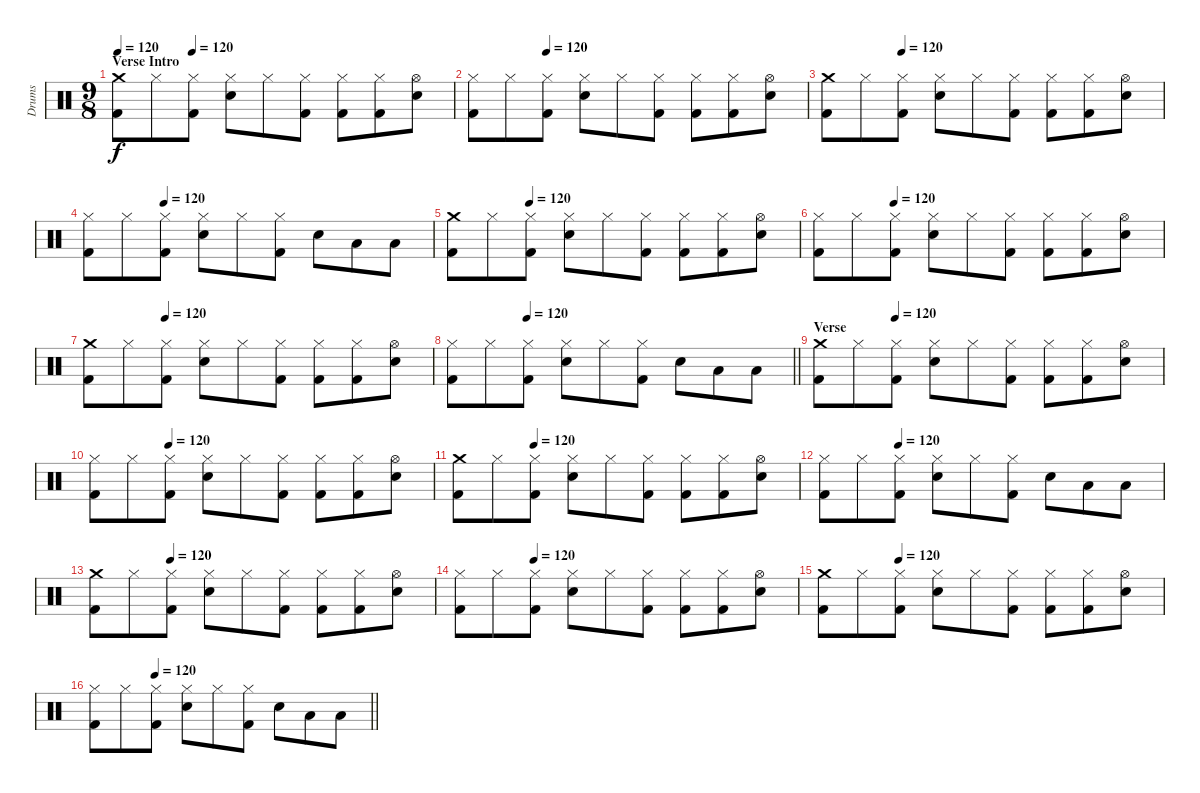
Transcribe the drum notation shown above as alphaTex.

\track ("Drums" "Drums") {instrument percussion}
\staff {score}
\articulation defaults
\ts (9 8)
\section ("" "Verse Intro")
\tempo 120
\tempo (120 0.2222222222222222)
\clef neutral
\ks c
("Kick (hit) 2" "Crash medium (hit)").8{dy f} "Hi-Hat (closed)".8 ("Kick (hit) 2" "Hi-Hat (closed)").8 ("Electric Snare (hit)" "Hi-Hat (closed)").8 "Hi-Hat (closed)".8 ("Kick (hit) 2" "Hi-Hat (closed)").8 ("Kick (hit) 2" "Hi-Hat (closed)").8 ("Kick (hit) 2" "Hi-Hat (closed)").8 ("Electric Snare (hit)" "Hi-Hat (open)").8 |
\tempo (120 0.2222222222222222)
("Kick (hit) 2" "Hi-Hat (closed)").8 "Hi-Hat (closed)".8 ("Kick (hit) 2" "Hi-Hat (closed)").8 ("Electric Snare (hit)" "Hi-Hat (closed)").8 "Hi-Hat (closed)".8 ("Kick (hit) 2" "Hi-Hat (closed)").8 ("Kick (hit) 2" "Hi-Hat (closed)").8 ("Kick (hit) 2" "Hi-Hat (closed)").8 ("Electric Snare (hit)" "Hi-Hat (open)").8 |
\tempo (120 0.2222222222222222)
("Kick (hit) 2" "Crash medium (hit)").8 "Hi-Hat (closed)".8 ("Kick (hit) 2" "Hi-Hat (closed)").8 ("Electric Snare (hit)" "Hi-Hat (closed)").8 "Hi-Hat (closed)".8 ("Kick (hit) 2" "Hi-Hat (closed)").8 ("Kick (hit) 2" "Hi-Hat (closed)").8 ("Kick (hit) 2" "Hi-Hat (closed)").8 ("Electric Snare (hit)" "Hi-Hat (open)").8 |
\tempo (120 0.2222222222222222)
("Kick (hit) 2" "Hi-Hat (closed)").8 "Hi-Hat (closed)".8 ("Kick (hit) 2" "Hi-Hat (closed)").8 ("Electric Snare (hit)" "Hi-Hat (closed)").8 "Hi-Hat (closed)".8 ("Kick (hit) 2" "Hi-Hat (closed)").8 "Electric Snare (hit)".8 "Low Tom (hit)".8 "Low Floor Tom (hit)".8 |
\tempo (120 0.2222222222222222)
("Kick (hit) 2" "Crash medium (hit)").8 "Hi-Hat (closed)".8 ("Kick (hit) 2" "Hi-Hat (closed)").8 ("Electric Snare (hit)" "Hi-Hat (closed)").8 "Hi-Hat (closed)".8 ("Kick (hit) 2" "Hi-Hat (closed)").8 ("Kick (hit) 2" "Hi-Hat (closed)").8 ("Kick (hit) 2" "Hi-Hat (closed)").8 ("Electric Snare (hit)" "Hi-Hat (open)").8 |
\tempo (120 0.2222222222222222)
("Kick (hit) 2" "Hi-Hat (closed)").8 "Hi-Hat (closed)".8 ("Kick (hit) 2" "Hi-Hat (closed)").8 ("Electric Snare (hit)" "Hi-Hat (closed)").8 "Hi-Hat (closed)".8 ("Kick (hit) 2" "Hi-Hat (closed)").8 ("Kick (hit) 2" "Hi-Hat (closed)").8 ("Kick (hit) 2" "Hi-Hat (closed)").8 ("Electric Snare (hit)" "Hi-Hat (open)").8 |
\tempo (120 0.2222222222222222)
("Kick (hit) 2" "Crash medium (hit)").8 "Hi-Hat (closed)".8 ("Kick (hit) 2" "Hi-Hat (closed)").8 ("Electric Snare (hit)" "Hi-Hat (closed)").8 "Hi-Hat (closed)".8 ("Kick (hit) 2" "Hi-Hat (closed)").8 ("Kick (hit) 2" "Hi-Hat (closed)").8 ("Kick (hit) 2" "Hi-Hat (closed)").8 ("Electric Snare (hit)" "Hi-Hat (open)").8 |
\tempo (120 0.2222222222222222)
\barLineRight lightlight
("Kick (hit) 2" "Hi-Hat (closed)").8 "Hi-Hat (closed)".8 ("Kick (hit) 2" "Hi-Hat (closed)").8 ("Electric Snare (hit)" "Hi-Hat (closed)").8 "Hi-Hat (closed)".8 ("Kick (hit) 2" "Hi-Hat (closed)").8 "Electric Snare (hit)".8 "Low Tom (hit)".8 "Low Floor Tom (hit)".8 |
\section ("" "Verse")
\tempo (120 0.2222222222222222)
("Kick (hit) 2" "Crash medium (hit)").8 "Hi-Hat (closed)".8 ("Kick (hit) 2" "Hi-Hat (closed)").8 ("Electric Snare (hit)" "Hi-Hat (closed)").8 "Hi-Hat (closed)".8 ("Kick (hit) 2" "Hi-Hat (closed)").8 ("Kick (hit) 2" "Hi-Hat (closed)").8 ("Kick (hit) 2" "Hi-Hat (closed)").8 ("Electric Snare (hit)" "Hi-Hat (open)").8 |
\tempo (120 0.2222222222222222)
("Kick (hit) 2" "Hi-Hat (closed)").8 "Hi-Hat (closed)".8 ("Kick (hit) 2" "Hi-Hat (closed)").8 ("Electric Snare (hit)" "Hi-Hat (closed)").8 "Hi-Hat (closed)".8 ("Kick (hit) 2" "Hi-Hat (closed)").8 ("Kick (hit) 2" "Hi-Hat (closed)").8 ("Kick (hit) 2" "Hi-Hat (closed)").8 ("Electric Snare (hit)" "Hi-Hat (open)").8 |
\tempo (120 0.2222222222222222)
("Kick (hit) 2" "Crash medium (hit)").8 "Hi-Hat (closed)".8 ("Kick (hit) 2" "Hi-Hat (closed)").8 ("Electric Snare (hit)" "Hi-Hat (closed)").8 "Hi-Hat (closed)".8 ("Kick (hit) 2" "Hi-Hat (closed)").8 ("Kick (hit) 2" "Hi-Hat (closed)").8 ("Kick (hit) 2" "Hi-Hat (closed)").8 ("Electric Snare (hit)" "Hi-Hat (open)").8 |
\tempo (120 0.2222222222222222)
("Kick (hit) 2" "Hi-Hat (closed)").8 "Hi-Hat (closed)".8 ("Kick (hit) 2" "Hi-Hat (closed)").8 ("Electric Snare (hit)" "Hi-Hat (closed)").8 "Hi-Hat (closed)".8 ("Kick (hit) 2" "Hi-Hat (closed)").8 "Electric Snare (hit)".8 "Low Tom (hit)".8 "Low Floor Tom (hit)".8 |
\tempo (120 0.2222222222222222)
("Kick (hit) 2" "Crash medium (hit)").8 "Hi-Hat (closed)".8 ("Kick (hit) 2" "Hi-Hat (closed)").8 ("Electric Snare (hit)" "Hi-Hat (closed)").8 "Hi-Hat (closed)".8 ("Kick (hit) 2" "Hi-Hat (closed)").8 ("Kick (hit) 2" "Hi-Hat (closed)").8 ("Kick (hit) 2" "Hi-Hat (closed)").8 ("Electric Snare (hit)" "Hi-Hat (open)").8 |
\tempo (120 0.2222222222222222)
("Kick (hit) 2" "Hi-Hat (closed)").8 "Hi-Hat (closed)".8 ("Kick (hit) 2" "Hi-Hat (closed)").8 ("Electric Snare (hit)" "Hi-Hat (closed)").8 "Hi-Hat (closed)".8 ("Kick (hit) 2" "Hi-Hat (closed)").8 ("Kick (hit) 2" "Hi-Hat (closed)").8 ("Kick (hit) 2" "Hi-Hat (closed)").8 ("Electric Snare (hit)" "Hi-Hat (open)").8 |
\tempo (120 0.2222222222222222)
("Kick (hit) 2" "Crash medium (hit)").8 "Hi-Hat (closed)".8 ("Kick (hit) 2" "Hi-Hat (closed)").8 ("Electric Snare (hit)" "Hi-Hat (closed)").8 "Hi-Hat (closed)".8 ("Kick (hit) 2" "Hi-Hat (closed)").8 ("Kick (hit) 2" "Hi-Hat (closed)").8 ("Kick (hit) 2" "Hi-Hat (closed)").8 ("Electric Snare (hit)" "Hi-Hat (open)").8 |
\tempo (120 0.2222222222222222)
\barLineRight lightlight
("Kick (hit) 2" "Hi-Hat (closed)").8 "Hi-Hat (closed)".8 ("Kick (hit) 2" "Hi-Hat (closed)").8 ("Electric Snare (hit)" "Hi-Hat (closed)").8 "Hi-Hat (closed)".8 ("Kick (hit) 2" "Hi-Hat (closed)").8 "Electric Snare (hit)".8 "Low Tom (hit)".8 "Low Floor Tom (hit)".8
